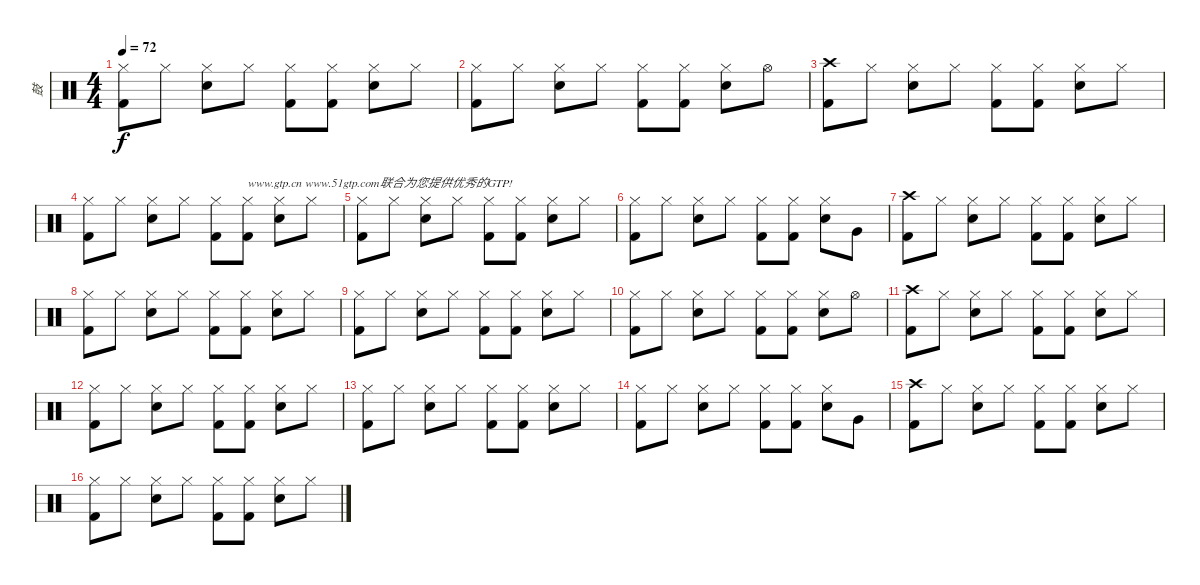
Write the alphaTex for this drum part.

\track ("鼓" "鼓") {instrument percussion}
\staff {score}
\articulation defaults
\ts (4 4)
\tempo 72
\clef neutral
\ks c
("Hi-Hat (closed)" "Kick (hit) 2").8{dy f} "Hi-Hat (closed)".8 ("Hi-Hat (closed)" "Electric Snare (hit)").8 "Hi-Hat (closed)".8 ("Hi-Hat (closed)" "Kick (hit) 2").8 ("Hi-Hat (closed)" "Kick (hit) 2").8 ("Hi-Hat (closed)" "Electric Snare (hit)").8 "Hi-Hat (closed)".8 |
("Hi-Hat (closed)" "Kick (hit) 2").8 "Hi-Hat (closed)".8 ("Hi-Hat (closed)" "Electric Snare (hit)").8 "Hi-Hat (closed)".8 ("Hi-Hat (closed)" "Kick (hit) 2").8 ("Hi-Hat (closed)" "Kick (hit) 2").8 ("Hi-Hat (closed)" "Electric Snare (hit)").8 "Hi-Hat (open)".8 |
("Crash high (hit)" "Kick (hit) 2").8 "Hi-Hat (closed)".8 ("Hi-Hat (closed)" "Electric Snare (hit)").8 "Hi-Hat (closed)".8 ("Hi-Hat (closed)" "Kick (hit) 2").8 ("Hi-Hat (closed)" "Kick (hit) 2").8 ("Hi-Hat (closed)" "Electric Snare (hit)").8 "Hi-Hat (closed)".8 |
("Hi-Hat (closed)" "Kick (hit) 2").8 "Hi-Hat (closed)".8 ("Hi-Hat (closed)" "Electric Snare (hit)").8 "Hi-Hat (closed)".8 ("Hi-Hat (closed)" "Kick (hit) 2").8 ("Hi-Hat (closed)" "Kick (hit) 2").8{txt "www.gtp.cn www.51gtp.com联合为您提供优秀的GTP!"} ("Hi-Hat (closed)" "Electric Snare (hit)").8 "Hi-Hat (closed)".8 |
("Hi-Hat (closed)" "Kick (hit) 2").8 "Hi-Hat (closed)".8 ("Hi-Hat (closed)" "Electric Snare (hit)").8 "Hi-Hat (closed)".8 ("Hi-Hat (closed)" "Kick (hit) 2").8 ("Hi-Hat (closed)" "Kick (hit) 2").8 ("Hi-Hat (closed)" "Electric Snare (hit)").8 "Hi-Hat (closed)".8 |
("Hi-Hat (closed)" "Kick (hit) 2").8 "Hi-Hat (closed)".8 ("Hi-Hat (closed)" "Electric Snare (hit)").8 "Hi-Hat (closed)".8 ("Hi-Hat (closed)" "Kick (hit) 2").8 ("Hi-Hat (closed)" "Kick (hit) 2").8 ("Hi-Hat (closed)" "Electric Snare (hit)").8 "Very Low Tom (hit)".8 |
("Crash high (hit)" "Kick (hit) 2").8 "Hi-Hat (closed)".8 ("Hi-Hat (closed)" "Electric Snare (hit)").8 "Hi-Hat (closed)".8 ("Hi-Hat (closed)" "Kick (hit) 2").8 ("Hi-Hat (closed)" "Kick (hit) 2").8 ("Hi-Hat (closed)" "Electric Snare (hit)").8 "Hi-Hat (closed)".8 |
("Hi-Hat (closed)" "Kick (hit) 2").8 "Hi-Hat (closed)".8 ("Hi-Hat (closed)" "Electric Snare (hit)").8 "Hi-Hat (closed)".8 ("Hi-Hat (closed)" "Kick (hit) 2").8 ("Hi-Hat (closed)" "Kick (hit) 2").8 ("Hi-Hat (closed)" "Electric Snare (hit)").8 "Hi-Hat (closed)".8 |
("Hi-Hat (closed)" "Kick (hit) 2").8 "Hi-Hat (closed)".8 ("Hi-Hat (closed)" "Electric Snare (hit)").8 "Hi-Hat (closed)".8 ("Hi-Hat (closed)" "Kick (hit) 2").8 ("Hi-Hat (closed)" "Kick (hit) 2").8 ("Hi-Hat (closed)" "Electric Snare (hit)").8 "Hi-Hat (closed)".8 |
("Hi-Hat (closed)" "Kick (hit) 2").8 "Hi-Hat (closed)".8 ("Hi-Hat (closed)" "Electric Snare (hit)").8 "Hi-Hat (closed)".8 ("Hi-Hat (closed)" "Kick (hit) 2").8 ("Hi-Hat (closed)" "Kick (hit) 2").8 ("Hi-Hat (closed)" "Electric Snare (hit)").8 "Hi-Hat (open)".8 |
("Crash high (hit)" "Kick (hit) 2").8 "Hi-Hat (closed)".8 ("Hi-Hat (closed)" "Electric Snare (hit)").8 "Hi-Hat (closed)".8 ("Hi-Hat (closed)" "Kick (hit) 2").8 ("Hi-Hat (closed)" "Kick (hit) 2").8 ("Hi-Hat (closed)" "Electric Snare (hit)").8 "Hi-Hat (closed)".8 |
("Hi-Hat (closed)" "Kick (hit) 2").8 "Hi-Hat (closed)".8 ("Hi-Hat (closed)" "Electric Snare (hit)").8 "Hi-Hat (closed)".8 ("Hi-Hat (closed)" "Kick (hit) 2").8 ("Hi-Hat (closed)" "Kick (hit) 2").8 ("Hi-Hat (closed)" "Electric Snare (hit)").8 "Hi-Hat (closed)".8 |
("Hi-Hat (closed)" "Kick (hit) 2").8 "Hi-Hat (closed)".8 ("Hi-Hat (closed)" "Electric Snare (hit)").8 "Hi-Hat (closed)".8 ("Hi-Hat (closed)" "Kick (hit) 2").8 ("Hi-Hat (closed)" "Kick (hit) 2").8 ("Hi-Hat (closed)" "Electric Snare (hit)").8 "Hi-Hat (closed)".8 |
("Hi-Hat (closed)" "Kick (hit) 2").8 "Hi-Hat (closed)".8 ("Hi-Hat (closed)" "Electric Snare (hit)").8 "Hi-Hat (closed)".8 ("Hi-Hat (closed)" "Kick (hit) 2").8 ("Hi-Hat (closed)" "Kick (hit) 2").8 ("Hi-Hat (closed)" "Electric Snare (hit)").8 "Very Low Tom (hit)".8 |
("Crash high (hit)" "Kick (hit) 2").8 "Hi-Hat (closed)".8 ("Hi-Hat (closed)" "Electric Snare (hit)").8 "Hi-Hat (closed)".8 ("Hi-Hat (closed)" "Kick (hit) 2").8 ("Hi-Hat (closed)" "Kick (hit) 2").8 ("Hi-Hat (closed)" "Electric Snare (hit)").8 "Hi-Hat (closed)".8 |
("Hi-Hat (closed)" "Kick (hit) 2").8 "Hi-Hat (closed)".8 ("Hi-Hat (closed)" "Electric Snare (hit)").8 "Hi-Hat (closed)".8 ("Hi-Hat (closed)" "Kick (hit) 2").8 ("Hi-Hat (closed)" "Kick (hit) 2").8 ("Hi-Hat (closed)" "Electric Snare (hit)").8 "Hi-Hat (closed)".8
